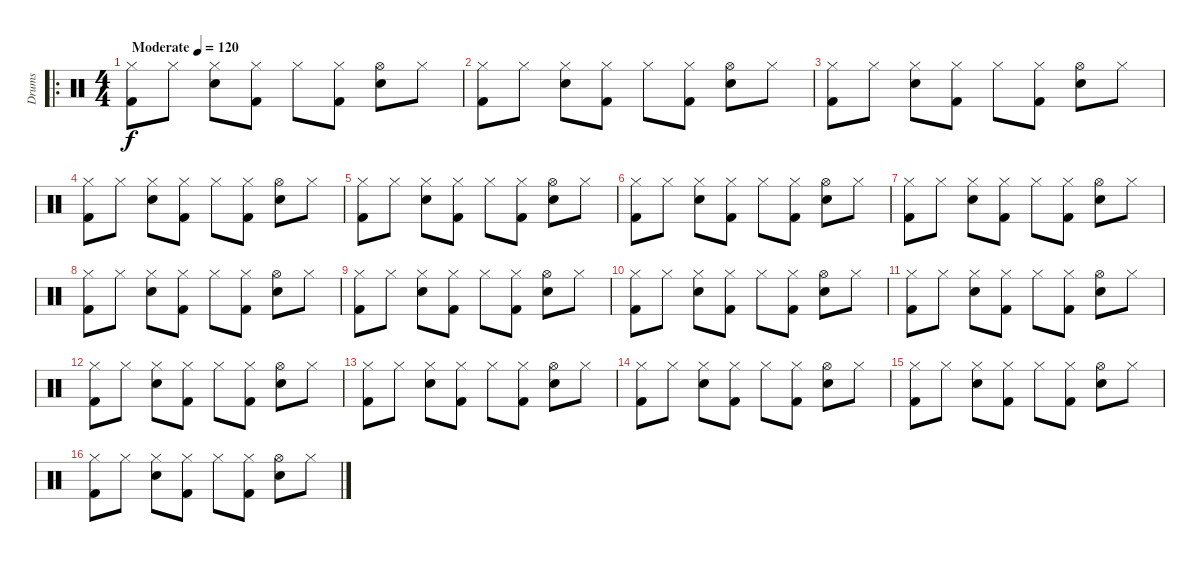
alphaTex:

\track ("Drums" "Drums") {instrument percussion}
\staff {score}
\articulation defaults
\ro
\ts (4 4)
\tempo (120 "Moderate")
\clef neutral
\ks c
("Hi-Hat (closed)" "Kick (hit) 2").8{dy f} "Hi-Hat (closed)".8 ("Hi-Hat (closed)" "Snare (hit) 2").8 ("Hi-Hat (closed)" "Kick (hit) 2").8 "Hi-Hat (closed)".8 ("Hi-Hat (closed)" "Kick (hit) 2").8 ("Hi-Hat (open)" "Snare (hit) 2").8 "Hi-Hat (closed)".8 |
("Hi-Hat (closed)" "Kick (hit) 2").8 "Hi-Hat (closed)".8 ("Hi-Hat (closed)" "Snare (hit) 2").8 ("Hi-Hat (closed)" "Kick (hit) 2").8 "Hi-Hat (closed)".8 ("Hi-Hat (closed)" "Kick (hit) 2").8 ("Hi-Hat (open)" "Snare (hit) 2").8 "Hi-Hat (closed)".8 |
("Hi-Hat (closed)" "Kick (hit) 2").8 "Hi-Hat (closed)".8 ("Hi-Hat (closed)" "Snare (hit) 2").8 ("Hi-Hat (closed)" "Kick (hit) 2").8 "Hi-Hat (closed)".8 ("Hi-Hat (closed)" "Kick (hit) 2").8 ("Hi-Hat (open)" "Snare (hit) 2").8 "Hi-Hat (closed)".8 |
("Hi-Hat (closed)" "Kick (hit) 2").8 "Hi-Hat (closed)".8 ("Hi-Hat (closed)" "Snare (hit) 2").8 ("Hi-Hat (closed)" "Kick (hit) 2").8 "Hi-Hat (closed)".8 ("Hi-Hat (closed)" "Kick (hit) 2").8 ("Hi-Hat (open)" "Snare (hit) 2").8 "Hi-Hat (closed)".8 |
("Hi-Hat (closed)" "Kick (hit) 2").8 "Hi-Hat (closed)".8 ("Hi-Hat (closed)" "Snare (hit) 2").8 ("Hi-Hat (closed)" "Kick (hit) 2").8 "Hi-Hat (closed)".8 ("Hi-Hat (closed)" "Kick (hit) 2").8 ("Hi-Hat (open)" "Snare (hit) 2").8 "Hi-Hat (closed)".8 |
("Hi-Hat (closed)" "Kick (hit) 2").8 "Hi-Hat (closed)".8 ("Hi-Hat (closed)" "Snare (hit) 2").8 ("Hi-Hat (closed)" "Kick (hit) 2").8 "Hi-Hat (closed)".8 ("Hi-Hat (closed)" "Kick (hit) 2").8 ("Hi-Hat (open)" "Snare (hit) 2").8 "Hi-Hat (closed)".8 |
("Hi-Hat (closed)" "Kick (hit) 2").8 "Hi-Hat (closed)".8 ("Hi-Hat (closed)" "Snare (hit) 2").8 ("Hi-Hat (closed)" "Kick (hit) 2").8 "Hi-Hat (closed)".8 ("Hi-Hat (closed)" "Kick (hit) 2").8 ("Hi-Hat (open)" "Snare (hit) 2").8 "Hi-Hat (closed)".8 |
("Hi-Hat (closed)" "Kick (hit) 2").8 "Hi-Hat (closed)".8 ("Hi-Hat (closed)" "Snare (hit) 2").8 ("Hi-Hat (closed)" "Kick (hit) 2").8 "Hi-Hat (closed)".8 ("Hi-Hat (closed)" "Kick (hit) 2").8 ("Hi-Hat (open)" "Snare (hit) 2").8 "Hi-Hat (closed)".8 |
("Hi-Hat (closed)" "Kick (hit) 2").8 "Hi-Hat (closed)".8 ("Hi-Hat (closed)" "Snare (hit) 2").8 ("Hi-Hat (closed)" "Kick (hit) 2").8 "Hi-Hat (closed)".8 ("Hi-Hat (closed)" "Kick (hit) 2").8 ("Hi-Hat (open)" "Snare (hit) 2").8 "Hi-Hat (closed)".8 |
("Hi-Hat (closed)" "Kick (hit) 2").8 "Hi-Hat (closed)".8 ("Hi-Hat (closed)" "Snare (hit) 2").8 ("Hi-Hat (closed)" "Kick (hit) 2").8 "Hi-Hat (closed)".8 ("Hi-Hat (closed)" "Kick (hit) 2").8 ("Hi-Hat (open)" "Snare (hit) 2").8 "Hi-Hat (closed)".8 |
("Hi-Hat (closed)" "Kick (hit) 2").8 "Hi-Hat (closed)".8 ("Hi-Hat (closed)" "Snare (hit) 2").8 ("Hi-Hat (closed)" "Kick (hit) 2").8 "Hi-Hat (closed)".8 ("Hi-Hat (closed)" "Kick (hit) 2").8 ("Hi-Hat (open)" "Snare (hit) 2").8 "Hi-Hat (closed)".8 |
("Hi-Hat (closed)" "Kick (hit) 2").8 "Hi-Hat (closed)".8 ("Hi-Hat (closed)" "Snare (hit) 2").8 ("Hi-Hat (closed)" "Kick (hit) 2").8 "Hi-Hat (closed)".8 ("Hi-Hat (closed)" "Kick (hit) 2").8 ("Hi-Hat (open)" "Snare (hit) 2").8 "Hi-Hat (closed)".8 |
("Hi-Hat (closed)" "Kick (hit) 2").8 "Hi-Hat (closed)".8 ("Hi-Hat (closed)" "Snare (hit) 2").8 ("Hi-Hat (closed)" "Kick (hit) 2").8 "Hi-Hat (closed)".8 ("Hi-Hat (closed)" "Kick (hit) 2").8 ("Hi-Hat (open)" "Snare (hit) 2").8 "Hi-Hat (closed)".8 |
("Hi-Hat (closed)" "Kick (hit) 2").8 "Hi-Hat (closed)".8 ("Hi-Hat (closed)" "Snare (hit) 2").8 ("Hi-Hat (closed)" "Kick (hit) 2").8 "Hi-Hat (closed)".8 ("Hi-Hat (closed)" "Kick (hit) 2").8 ("Hi-Hat (open)" "Snare (hit) 2").8 "Hi-Hat (closed)".8 |
("Hi-Hat (closed)" "Kick (hit) 2").8 "Hi-Hat (closed)".8 ("Hi-Hat (closed)" "Snare (hit) 2").8 ("Hi-Hat (closed)" "Kick (hit) 2").8 "Hi-Hat (closed)".8 ("Hi-Hat (closed)" "Kick (hit) 2").8 ("Hi-Hat (open)" "Snare (hit) 2").8 "Hi-Hat (closed)".8 |
("Hi-Hat (closed)" "Kick (hit) 2").8 "Hi-Hat (closed)".8 ("Hi-Hat (closed)" "Snare (hit) 2").8 ("Hi-Hat (closed)" "Kick (hit) 2").8 "Hi-Hat (closed)".8 ("Hi-Hat (closed)" "Kick (hit) 2").8 ("Hi-Hat (open)" "Snare (hit) 2").8 "Hi-Hat (closed)".8
